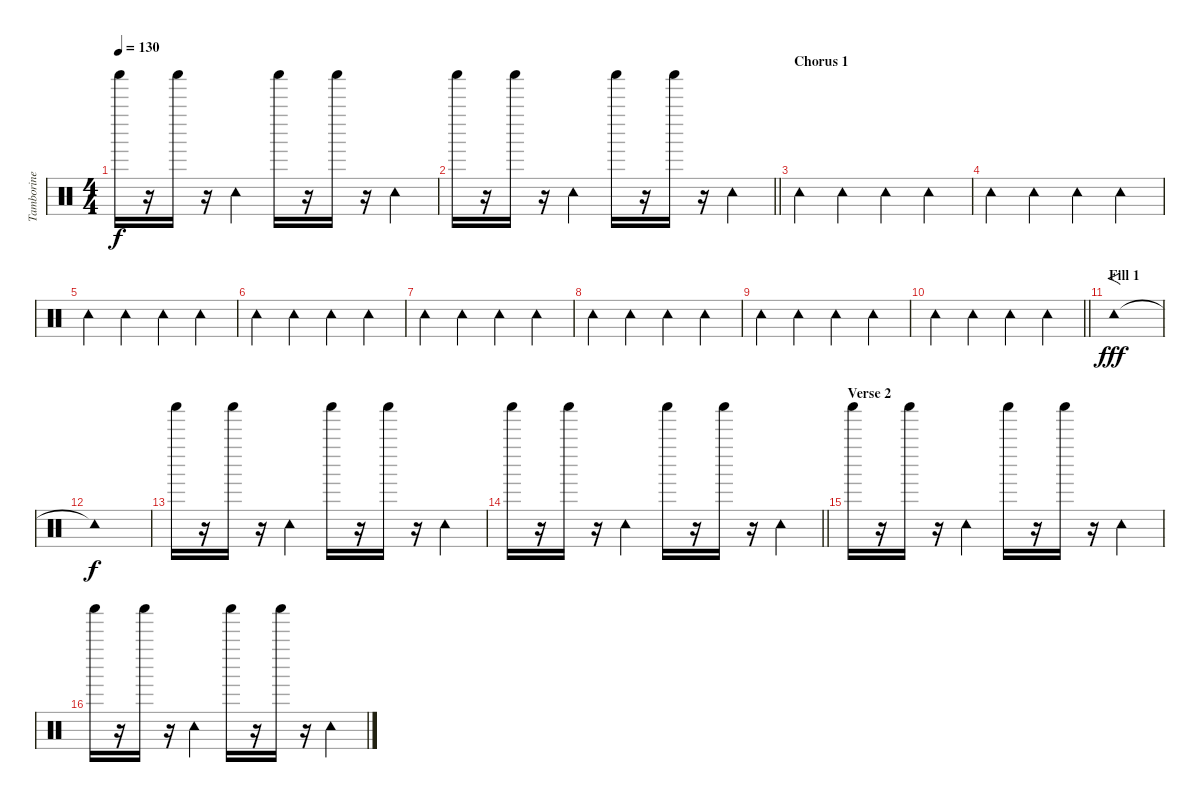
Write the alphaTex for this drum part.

\track ("Tamborine" "Tamborine") {instrument percussion}
\staff {score}
\articulation defaults
\ts (4 4)
\tempo 130
\clef neutral
\ks c "Shaker (hit)".16{dy f}
r.16 "Shaker (hit)".16 r.16 "Tambourine (hit)".4 "Shaker (hit)".16 r.16 "Shaker (hit)".16 r.16 "Tambourine (hit)".4 |
\barLineRight lightlight "Shaker (hit)".16
r.16 "Shaker (hit)".16 r.16 "Tambourine (hit)".4 "Shaker (hit)".16 r.16 "Shaker (hit)".16 r.16 "Tambourine (hit)".4 |
\section ("" "Chorus 1")
"Tambourine (hit)".4 "Tambourine (hit)".4 "Tambourine (hit)".4 "Tambourine (hit)".4 |
"Tambourine (hit)".4 "Tambourine (hit)".4 "Tambourine (hit)".4 "Tambourine (hit)".4 |
"Tambourine (hit)".4 "Tambourine (hit)".4 "Tambourine (hit)".4 "Tambourine (hit)".4 |
"Tambourine (hit)".4 "Tambourine (hit)".4 "Tambourine (hit)".4 "Tambourine (hit)".4 |
"Tambourine (hit)".4 "Tambourine (hit)".4 "Tambourine (hit)".4 "Tambourine (hit)".4 |
"Tambourine (hit)".4 "Tambourine (hit)".4 "Tambourine (hit)".4 "Tambourine (hit)".4 |
"Tambourine (hit)".4 "Tambourine (hit)".4 "Tambourine (hit)".4 "Tambourine (hit)".4 |
\barLineRight lightlight "Tambourine (hit)".4 "Tambourine (hit)".4 "Tambourine (hit)".4 "Tambourine (hit)".4
|
\section ("" "Fill 1")
"Tambourine (hit)"{tr (54 32)}.1{f dy fff} |
"Tambourine (hit)"{t}.1{dy f} |
"Shaker (hit)".16 r.16 "Shaker (hit)".16 r.16 "Tambourine (hit)".4 "Shaker (hit)".16 r.16 "Shaker (hit)".16 r.16 "Tambourine (hit)".4 |
\barLineRight lightlight "Shaker (hit)".16
r.16 "Shaker (hit)".16 r.16 "Tambourine (hit)".4 "Shaker (hit)".16 r.16 "Shaker (hit)".16 r.16 "Tambourine (hit)".4 |
\section ("" "Verse 2")
"Shaker (hit)".16 r.16 "Shaker (hit)".16 r.16 "Tambourine (hit)".4 "Shaker (hit)".16 r.16 "Shaker (hit)".16 r.16 "Tambourine (hit)".4 |
"Shaker (hit)".16 r.16 "Shaker (hit)".16 r.16 "Tambourine (hit)".4 "Shaker (hit)".16 r.16 "Shaker (hit)".16 r.16 "Tambourine (hit)".4
